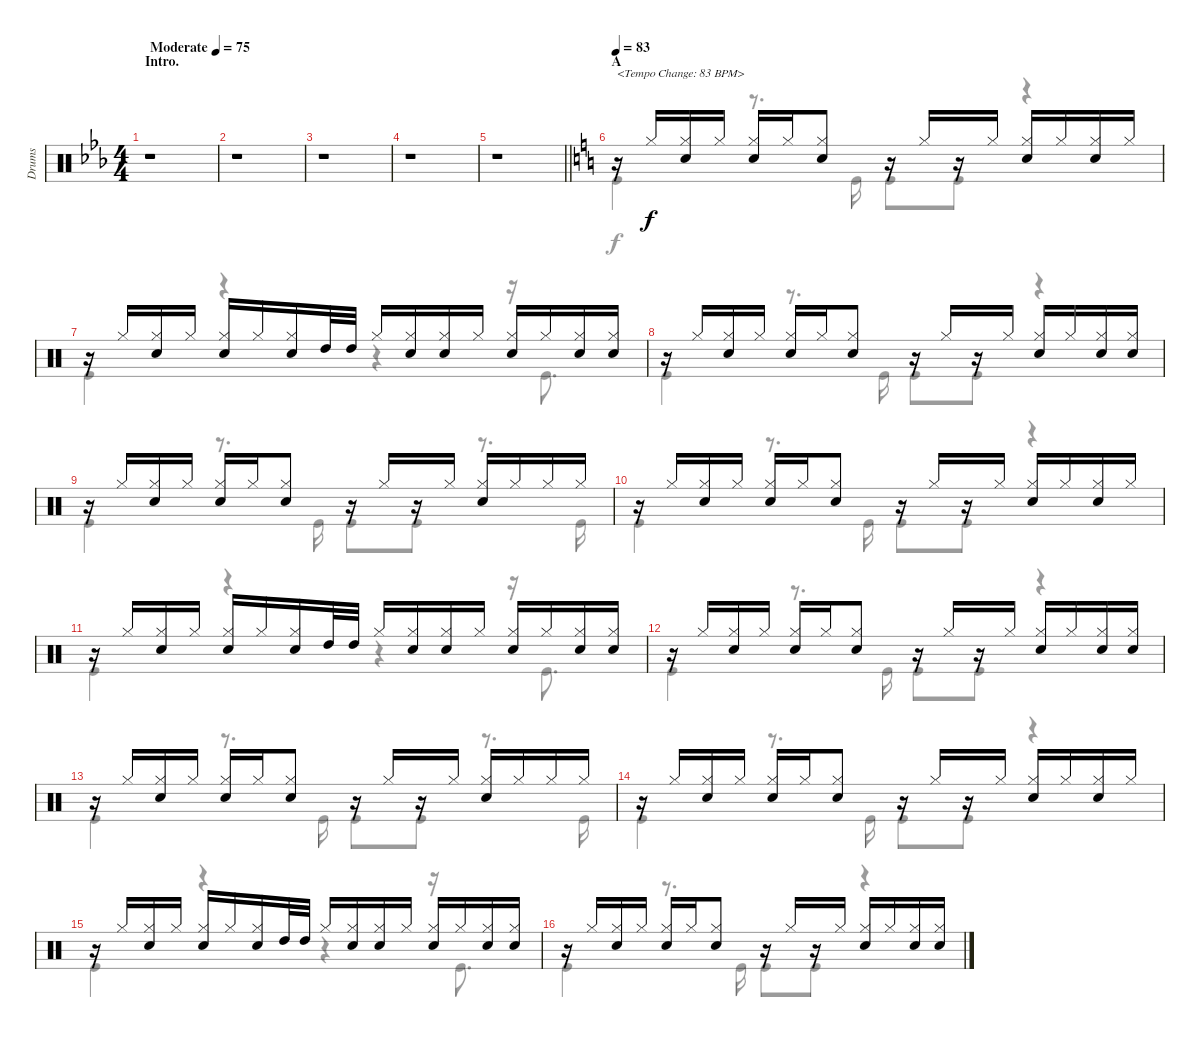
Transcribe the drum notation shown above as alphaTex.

\track ("Drums" "Drums") {instrument percussion}
\staff {score}
\articulation defaults
\voice
\ts (4 4)
\section ("" "Intro.")
\tempo (75 "Moderate")
\clef neutral
\ks eb
r.1{dy f} |
r.1 |
r.1 |
r.1 |
\barLineRight lightlight
r.1 |
\section ("" "A")
\tempo 83
\ks c
r.16{txt "<Tempo Change: 83 BPM>"} "Hi-Hat (closed)".16 ("Hi-Hat (closed)" "Snare (hit) 2").16 "Hi-Hat (closed)".16 ("Hi-Hat (closed)" "Snare (hit) 2").16 "Hi-Hat (closed)".16 ("Hi-Hat (closed)" "Snare (hit) 2").8 r.16 "Hi-Hat (closed)".16 r.16 "Hi-Hat (closed)".16 ("Hi-Hat (closed)" "Snare (hit) 2").16 "Hi-Hat (closed)".16 ("Hi-Hat (closed)" "Snare (hit) 2").16 "Hi-Hat (closed)".16 |
r.16 "Hi-Hat (closed)".16 ("Hi-Hat (closed)" "Snare (hit) 2").16 "Hi-Hat (closed)".16 ("Hi-Hat (closed)" "Snare (hit) 2").16 "Hi-Hat (closed)".16 ("Hi-Hat (closed)" "Snare (hit) 2").16 "High Tom (hit)".32 "High Tom (hit)".32 "Hi-Hat (closed)".16 ("Hi-Hat (closed)" "Snare (hit) 2").16 ("Hi-Hat (closed)" "Snare (hit) 2").16 "Hi-Hat (closed)".16 ("Hi-Hat (closed)" "Snare (hit) 2").16 "Hi-Hat (closed)".16 ("Hi-Hat (closed)" "Snare (hit) 2").16 ("Hi-Hat (closed)" "Snare (hit) 2").16 |
r.16 "Hi-Hat (closed)".16 ("Hi-Hat (closed)" "Snare (hit) 2").16 "Hi-Hat (closed)".16 ("Hi-Hat (closed)" "Snare (hit) 2").16 "Hi-Hat (closed)".16 ("Hi-Hat (closed)" "Snare (hit) 2").8 r.16 "Hi-Hat (closed)".16 r.16 "Hi-Hat (closed)".16 ("Hi-Hat (closed)" "Snare (hit) 2").16 "Hi-Hat (closed)".16 ("Hi-Hat (closed)" "Snare (hit) 2").16 ("Hi-Hat (closed)" "Snare (hit) 2").16 |
r.16 "Hi-Hat (closed)".16 ("Hi-Hat (closed)" "Snare (hit) 2").16 "Hi-Hat (closed)".16 ("Hi-Hat (closed)" "Snare (hit) 2").16 "Hi-Hat (closed)".16 ("Hi-Hat (closed)" "Snare (hit) 2").8 r.16 "Hi-Hat (closed)".16 r.16 "Hi-Hat (closed)".16 ("Hi-Hat (closed)" "Snare (hit) 2").16 "Hi-Hat (closed)".16 "Hi-Hat (closed)".16 "Hi-Hat (closed)".16 |
r.16 "Hi-Hat (closed)".16 ("Hi-Hat (closed)" "Snare (hit) 2").16 "Hi-Hat (closed)".16 ("Hi-Hat (closed)" "Snare (hit) 2").16 "Hi-Hat (closed)".16 ("Hi-Hat (closed)" "Snare (hit) 2").8 r.16 "Hi-Hat (closed)".16 r.16 "Hi-Hat (closed)".16 ("Hi-Hat (closed)" "Snare (hit) 2").16 "Hi-Hat (closed)".16 ("Hi-Hat (closed)" "Snare (hit) 2").16 "Hi-Hat (closed)".16 |
r.16 "Hi-Hat (closed)".16 ("Hi-Hat (closed)" "Snare (hit) 2").16 "Hi-Hat (closed)".16 ("Hi-Hat (closed)" "Snare (hit) 2").16 "Hi-Hat (closed)".16 ("Hi-Hat (closed)" "Snare (hit) 2").16 "High Tom (hit)".32 "High Tom (hit)".32 "Hi-Hat (closed)".16 ("Hi-Hat (closed)" "Snare (hit) 2").16 ("Hi-Hat (closed)" "Snare (hit) 2").16 "Hi-Hat (closed)".16 ("Hi-Hat (closed)" "Snare (hit) 2").16 "Hi-Hat (closed)".16 ("Hi-Hat (closed)" "Snare (hit) 2").16 ("Hi-Hat (closed)" "Snare (hit) 2").16 |
r.16 "Hi-Hat (closed)".16 ("Hi-Hat (closed)" "Snare (hit) 2").16 "Hi-Hat (closed)".16 ("Hi-Hat (closed)" "Snare (hit) 2").16 "Hi-Hat (closed)".16 ("Hi-Hat (closed)" "Snare (hit) 2").8 r.16 "Hi-Hat (closed)".16 r.16 "Hi-Hat (closed)".16 ("Hi-Hat (closed)" "Snare (hit) 2").16 "Hi-Hat (closed)".16 ("Hi-Hat (closed)" "Snare (hit) 2").16 ("Hi-Hat (closed)" "Snare (hit) 2").16 |
r.16 "Hi-Hat (closed)".16 ("Hi-Hat (closed)" "Snare (hit) 2").16 "Hi-Hat (closed)".16 ("Hi-Hat (closed)" "Snare (hit) 2").16 "Hi-Hat (closed)".16 ("Hi-Hat (closed)" "Snare (hit) 2").8 r.16 "Hi-Hat (closed)".16 r.16 "Hi-Hat (closed)".16 ("Hi-Hat (closed)" "Snare (hit) 2").16 "Hi-Hat (closed)".16 "Hi-Hat (closed)".16 "Hi-Hat (closed)".16 |
r.16 "Hi-Hat (closed)".16 ("Hi-Hat (closed)" "Snare (hit) 2").16 "Hi-Hat (closed)".16 ("Hi-Hat (closed)" "Snare (hit) 2").16 "Hi-Hat (closed)".16 ("Hi-Hat (closed)" "Snare (hit) 2").8 r.16 "Hi-Hat (closed)".16 r.16 "Hi-Hat (closed)".16 ("Hi-Hat (closed)" "Snare (hit) 2").16 "Hi-Hat (closed)".16 ("Hi-Hat (closed)" "Snare (hit) 2").16 "Hi-Hat (closed)".16 |
r.16 "Hi-Hat (closed)".16 ("Hi-Hat (closed)" "Snare (hit) 2").16 "Hi-Hat (closed)".16 ("Hi-Hat (closed)" "Snare (hit) 2").16 "Hi-Hat (closed)".16 ("Hi-Hat (closed)" "Snare (hit) 2").16 "High Tom (hit)".32 "High Tom (hit)".32 "Hi-Hat (closed)".16 ("Hi-Hat (closed)" "Snare (hit) 2").16 ("Hi-Hat (closed)" "Snare (hit) 2").16 "Hi-Hat (closed)".16 ("Hi-Hat (closed)" "Snare (hit) 2").16 "Hi-Hat (closed)".16 ("Hi-Hat (closed)" "Snare (hit) 2").16 ("Hi-Hat (closed)" "Snare (hit) 2").16 |
r.16 "Hi-Hat (closed)".16 ("Hi-Hat (closed)" "Snare (hit) 2").16 "Hi-Hat (closed)".16 ("Hi-Hat (closed)" "Snare (hit) 2").16 "Hi-Hat (closed)".16 ("Hi-Hat (closed)" "Snare (hit) 2").8 r.16 "Hi-Hat (closed)".16 r.16 "Hi-Hat (closed)".16 ("Hi-Hat (closed)" "Snare (hit) 2").16 "Hi-Hat (closed)".16 ("Hi-Hat (closed)" "Snare (hit) 2").16 ("Hi-Hat (closed)" "Snare (hit) 2").16
\voice
\clef neutral
\ottava regular
\simile none
\ks eb
|
|
|
|
\barLineRight lightlight
|
\ks c "Kick (hit)".4
r.8{d} "Kick (hit)".16 "Kick (hit)".8 "Kick (hit)".8 r.4 |
"Kick (hit)".4 r.4 r.4 r.16 "Kick (hit)".8{d} |
"Kick (hit)".4 r.8{d} "Kick (hit)".16 "Kick (hit)".8 "Kick (hit)".8 r.4 |
"Kick (hit)".4 r.8{d} "Kick (hit)".16 "Kick (hit)".8 "Kick (hit)".8 r.8{d} "Kick (hit)".16 |
"Kick (hit)".4 r.8{d} "Kick (hit)".16 "Kick (hit)".8 "Kick (hit)".8 r.4 |
"Kick (hit)".4 r.4 r.4 r.16 "Kick (hit)".8{d} |
"Kick (hit)".4 r.8{d} "Kick (hit)".16 "Kick (hit)".8 "Kick (hit)".8 r.4 |
"Kick (hit)".4 r.8{d} "Kick (hit)".16 "Kick (hit)".8 "Kick (hit)".8 r.8{d} "Kick (hit)".16 |
"Kick (hit)".4 r.8{d} "Kick (hit)".16 "Kick (hit)".8 "Kick (hit)".8 r.4 |
"Kick (hit)".4 r.4 r.4 r.16 "Kick (hit)".8{d} |
"Kick (hit)".4 r.8{d} "Kick (hit)".16 "Kick (hit)".8 "Kick (hit)".8 r.4
